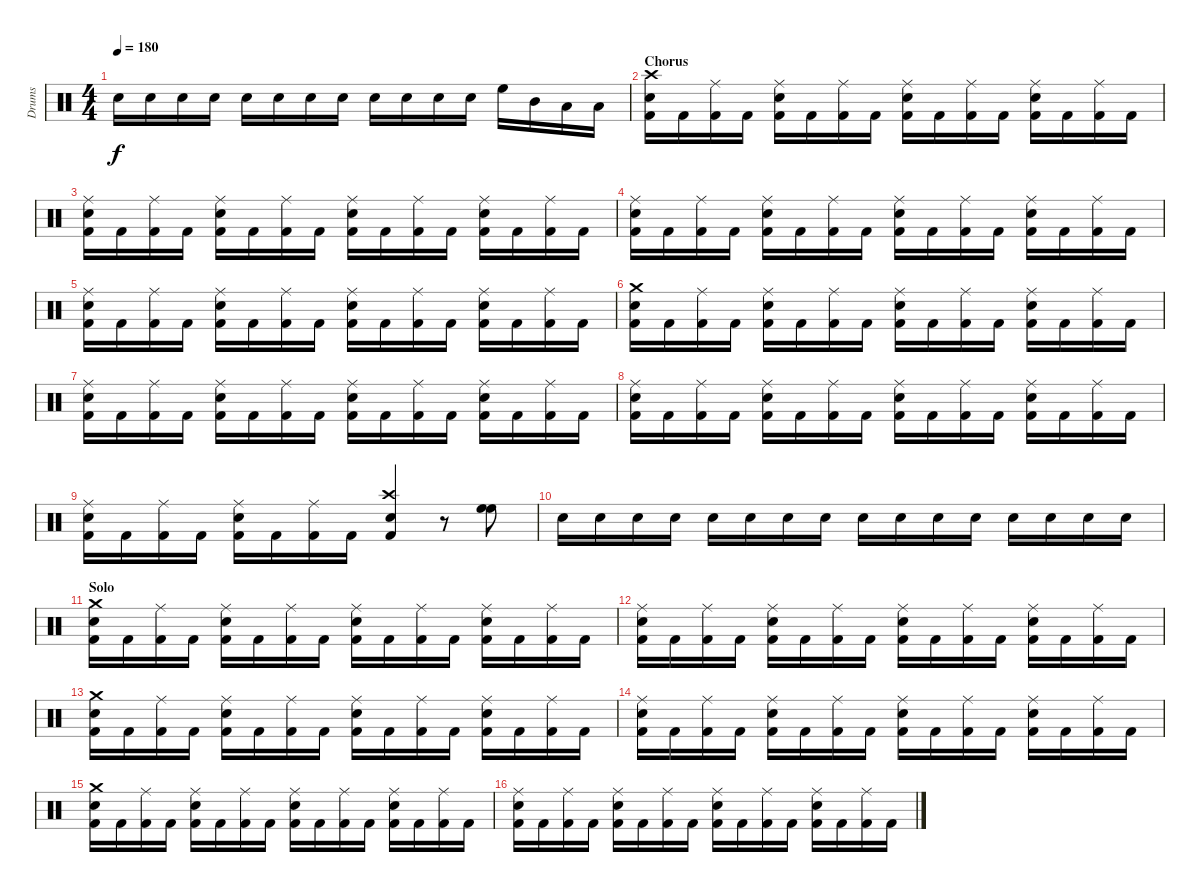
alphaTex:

\track ("Drums" "Drums") {instrument percussion}
\staff {score}
\articulation defaults
\ts (4 4)
\tempo 180
\clef neutral
\ks c "Snare (hit) 2".16{dy f} "Snare (hit) 2".16 "Snare (hit) 2".16 "Snare (hit) 2".16 "Snare (hit) 2".16 "Snare (hit) 2".16 "Snare (hit) 2".16 "Snare (hit) 2".16 "Snare (hit) 2".16 "Snare (hit) 2".16 "Snare (hit) 2".16 "Snare (hit) 2".16 "High Floor Tom (hit)".16 "Mid Tom (hit)".16 "Low Tom (hit)".16 "Low Floor Tom (hit)".16
|
\section ("" "Chorus")
("Crash high (hit)" "Snare (hit) 2" "Kick (hit) 2").16 "Kick (hit) 2".16 ("Ride (middle)" "Kick (hit) 2").16 "Kick (hit) 2".16 ("Ride (middle)" "Snare (hit) 2" "Kick (hit) 2").16 "Kick (hit) 2".16 ("Ride (middle)" "Kick (hit) 2").16 "Kick (hit) 2".16 ("Ride (middle)" "Snare (hit) 2" "Kick (hit) 2").16 "Kick (hit) 2".16 ("Ride (middle)" "Kick (hit) 2").16 "Kick (hit) 2".16 ("Ride (middle)" "Snare (hit) 2" "Kick (hit) 2").16 "Kick (hit) 2".16 ("Ride (middle)" "Kick (hit) 2").16 "Kick (hit) 2".16 |
("Ride (middle)" "Snare (hit) 2" "Kick (hit) 2").16 "Kick (hit) 2".16 ("Ride (middle)" "Kick (hit) 2").16 "Kick (hit) 2".16 ("Ride (middle)" "Snare (hit) 2" "Kick (hit) 2").16 "Kick (hit) 2".16 ("Ride (middle)" "Kick (hit) 2").16 "Kick (hit) 2".16 ("Ride (middle)" "Snare (hit) 2" "Kick (hit) 2").16 "Kick (hit) 2".16 ("Ride (middle)" "Kick (hit) 2").16 "Kick (hit) 2".16 ("Ride (middle)" "Snare (hit) 2" "Kick (hit) 2").16 "Kick (hit) 2".16 ("Ride (middle)" "Kick (hit) 2").16 "Kick (hit) 2".16 |
("Ride (middle)" "Snare (hit) 2" "Kick (hit) 2").16 "Kick (hit) 2".16 ("Ride (middle)" "Kick (hit) 2").16 "Kick (hit) 2".16 ("Ride (middle)" "Snare (hit) 2" "Kick (hit) 2").16 "Kick (hit) 2".16 ("Ride (middle)" "Kick (hit) 2").16 "Kick (hit) 2".16 ("Ride (middle)" "Snare (hit) 2" "Kick (hit) 2").16 "Kick (hit) 2".16 ("Ride (middle)" "Kick (hit) 2").16 "Kick (hit) 2".16 ("Ride (middle)" "Snare (hit) 2" "Kick (hit) 2").16 "Kick (hit) 2".16 ("Ride (middle)" "Kick (hit) 2").16 "Kick (hit) 2".16 |
("Ride (middle)" "Snare (hit) 2" "Kick (hit) 2").16 "Kick (hit) 2".16 ("Ride (middle)" "Kick (hit) 2").16 "Kick (hit) 2".16 ("Ride (middle)" "Snare (hit) 2" "Kick (hit) 2").16 "Kick (hit) 2".16 ("Ride (middle)" "Kick (hit) 2").16 "Kick (hit) 2".16 ("Ride (middle)" "Snare (hit) 2" "Kick (hit) 2").16 "Kick (hit) 2".16 ("Ride (middle)" "Kick (hit) 2").16 "Kick (hit) 2".16 ("Ride (middle)" "Snare (hit) 2" "Kick (hit) 2").16 "Kick (hit) 2".16 ("Ride (middle)" "Kick (hit) 2").16 "Kick (hit) 2".16 |
("Crash medium (hit)" "Snare (hit) 2" "Kick (hit) 2").16 "Kick (hit) 2".16 ("Ride (middle)" "Kick (hit) 2").16 "Kick (hit) 2".16 ("Ride (middle)" "Snare (hit) 2" "Kick (hit) 2").16 "Kick (hit) 2".16 ("Ride (middle)" "Kick (hit) 2").16 "Kick (hit) 2".16 ("Ride (middle)" "Snare (hit) 2" "Kick (hit) 2").16 "Kick (hit) 2".16 ("Ride (middle)" "Kick (hit) 2").16 "Kick (hit) 2".16 ("Ride (middle)" "Snare (hit) 2" "Kick (hit) 2").16 "Kick (hit) 2".16 ("Ride (middle)" "Kick (hit) 2").16 "Kick (hit) 2".16 |
("Ride (middle)" "Snare (hit) 2" "Kick (hit) 2").16 "Kick (hit) 2".16 ("Ride (middle)" "Kick (hit) 2").16 "Kick (hit) 2".16 ("Ride (middle)" "Snare (hit) 2" "Kick (hit) 2").16 "Kick (hit) 2".16 ("Ride (middle)" "Kick (hit) 2").16 "Kick (hit) 2".16 ("Ride (middle)" "Snare (hit) 2" "Kick (hit) 2").16 "Kick (hit) 2".16 ("Ride (middle)" "Kick (hit) 2").16 "Kick (hit) 2".16 ("Ride (middle)" "Snare (hit) 2" "Kick (hit) 2").16 "Kick (hit) 2".16 ("Ride (middle)" "Kick (hit) 2").16 "Kick (hit) 2".16 |
("Ride (middle)" "Snare (hit) 2" "Kick (hit) 2").16 "Kick (hit) 2".16 ("Ride (middle)" "Kick (hit) 2").16 "Kick (hit) 2".16 ("Ride (middle)" "Snare (hit) 2" "Kick (hit) 2").16 "Kick (hit) 2".16 ("Ride (middle)" "Kick (hit) 2").16 "Kick (hit) 2".16 ("Ride (middle)" "Snare (hit) 2" "Kick (hit) 2").16 "Kick (hit) 2".16 ("Ride (middle)" "Kick (hit) 2").16 "Kick (hit) 2".16 ("Ride (middle)" "Snare (hit) 2" "Kick (hit) 2").16 "Kick (hit) 2".16 ("Ride (middle)" "Kick (hit) 2").16 "Kick (hit) 2".16 |
("Ride (middle)" "Snare (hit) 2" "Kick (hit) 2").16 "Kick (hit) 2".16 ("Ride (middle)" "Kick (hit) 2").16 "Kick (hit) 2".16 ("Ride (middle)" "Snare (hit) 2" "Kick (hit) 2").16 "Kick (hit) 2".16 ("Ride (middle)" "Kick (hit) 2").16 "Kick (hit) 2".16 ("Crash high (hit)" "Snare (hit) 2" "Kick (hit) 2").4 r.8 ("High Floor Tom (hit)" "High Floor Tom (hit)").8 |
"Snare (hit) 2".16 "Snare (hit) 2".16 "Snare (hit) 2".16 "Snare (hit) 2".16 "Snare (hit) 2".16 "Snare (hit) 2".16 "Snare (hit) 2".16 "Snare (hit) 2".16 "Snare (hit) 2".16 "Snare (hit) 2".16 "Snare (hit) 2".16 "Snare (hit) 2".16 "Snare (hit) 2".16 "Snare (hit) 2".16 "Snare (hit) 2".16 "Snare (hit) 2".16 |
\section ("" "Solo")
("Crash medium (hit)" "Snare (hit) 2" "Kick (hit) 2").16 "Kick (hit) 2".16 ("Ride (middle)" "Kick (hit) 2").16 "Kick (hit) 2".16 ("Ride (middle)" "Snare (hit) 2" "Kick (hit) 2").16 "Kick (hit) 2".16 ("Ride (middle)" "Kick (hit) 2").16 "Kick (hit) 2".16 ("Ride (middle)" "Snare (hit) 2" "Kick (hit) 2").16 "Kick (hit) 2".16 ("Ride (middle)" "Kick (hit) 2").16 "Kick (hit) 2".16 ("Ride (middle)" "Snare (hit) 2" "Kick (hit) 2").16 "Kick (hit) 2".16 ("Ride (middle)" "Kick (hit) 2").16 "Kick (hit) 2".16 |
("Ride (middle)" "Snare (hit) 2" "Kick (hit) 2").16 "Kick (hit) 2".16 ("Ride (middle)" "Kick (hit) 2").16 "Kick (hit) 2".16 ("Ride (middle)" "Snare (hit) 2" "Kick (hit) 2").16 "Kick (hit) 2".16 ("Ride (middle)" "Kick (hit) 2").16 "Kick (hit) 2".16 ("Ride (middle)" "Snare (hit) 2" "Kick (hit) 2").16 "Kick (hit) 2".16 ("Ride (middle)" "Kick (hit) 2").16 "Kick (hit) 2".16 ("Ride (middle)" "Snare (hit) 2" "Kick (hit) 2").16 "Kick (hit) 2".16 ("Ride (middle)" "Kick (hit) 2").16 "Kick (hit) 2".16 |
("Crash medium (hit)" "Snare (hit) 2" "Kick (hit) 2").16 "Kick (hit) 2".16 ("Ride (middle)" "Kick (hit) 2").16 "Kick (hit) 2".16 ("Ride (middle)" "Snare (hit) 2" "Kick (hit) 2").16 "Kick (hit) 2".16 ("Ride (middle)" "Kick (hit) 2").16 "Kick (hit) 2".16 ("Ride (middle)" "Snare (hit) 2" "Kick (hit) 2").16 "Kick (hit) 2".16 ("Ride (middle)" "Kick (hit) 2").16 "Kick (hit) 2".16 ("Ride (middle)" "Snare (hit) 2" "Kick (hit) 2").16 "Kick (hit) 2".16 ("Ride (middle)" "Kick (hit) 2").16 "Kick (hit) 2".16 |
("Ride (middle)" "Snare (hit) 2" "Kick (hit) 2").16 "Kick (hit) 2".16 ("Ride (middle)" "Kick (hit) 2").16 "Kick (hit) 2".16 ("Ride (middle)" "Snare (hit) 2" "Kick (hit) 2").16 "Kick (hit) 2".16 ("Ride (middle)" "Kick (hit) 2").16 "Kick (hit) 2".16 ("Ride (middle)" "Snare (hit) 2" "Kick (hit) 2").16 "Kick (hit) 2".16 ("Ride (middle)" "Kick (hit) 2").16 "Kick (hit) 2".16 ("Ride (middle)" "Snare (hit) 2" "Kick (hit) 2").16 "Kick (hit) 2".16 ("Ride (middle)" "Kick (hit) 2").16 "Kick (hit) 2".16 |
("Crash medium (hit)" "Snare (hit) 2" "Kick (hit) 2").16 "Kick (hit) 2".16 ("Ride (middle)" "Kick (hit) 2").16 "Kick (hit) 2".16 ("Ride (middle)" "Snare (hit) 2" "Kick (hit) 2").16 "Kick (hit) 2".16 ("Ride (middle)" "Kick (hit) 2").16 "Kick (hit) 2".16 ("Ride (middle)" "Snare (hit) 2" "Kick (hit) 2").16 "Kick (hit) 2".16 ("Ride (middle)" "Kick (hit) 2").16 "Kick (hit) 2".16 ("Ride (middle)" "Snare (hit) 2" "Kick (hit) 2").16 "Kick (hit) 2".16 ("Ride (middle)" "Kick (hit) 2").16 "Kick (hit) 2".16 |
("Ride (middle)" "Snare (hit) 2" "Kick (hit) 2").16 "Kick (hit) 2".16 ("Ride (middle)" "Kick (hit) 2").16 "Kick (hit) 2".16 ("Ride (middle)" "Snare (hit) 2" "Kick (hit) 2").16 "Kick (hit) 2".16 ("Ride (middle)" "Kick (hit) 2").16 "Kick (hit) 2".16 ("Ride (middle)" "Snare (hit) 2" "Kick (hit) 2").16 "Kick (hit) 2".16 ("Ride (middle)" "Kick (hit) 2").16 "Kick (hit) 2".16 ("Ride (middle)" "Snare (hit) 2" "Kick (hit) 2").16 "Kick (hit) 2".16 ("Ride (middle)" "Kick (hit) 2").16 "Kick (hit) 2".16
